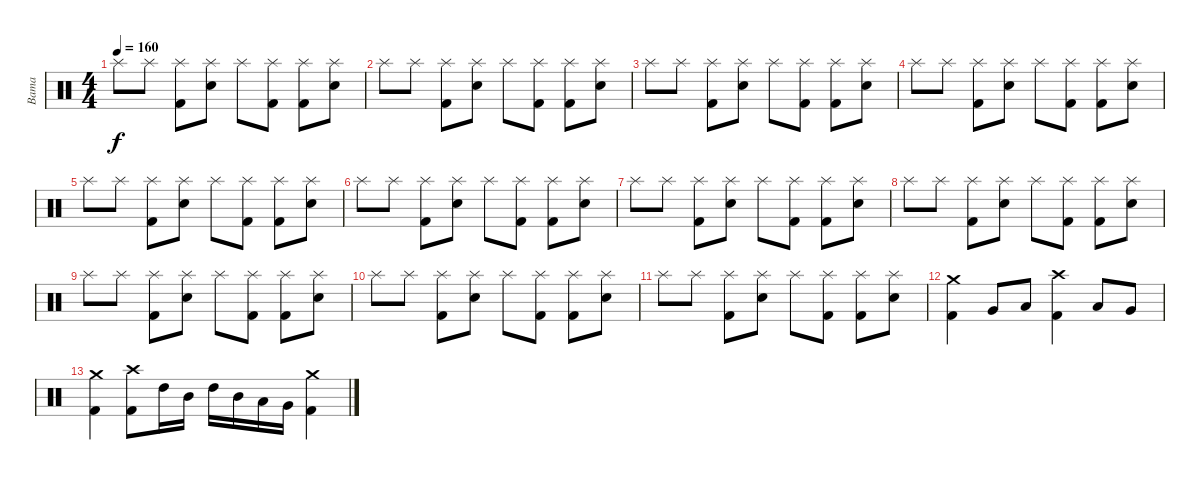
\track ("Bama" "Bama") {instrument percussion}
\staff {score}
\articulation defaults
\ts (4 4)
\tempo 160
\clef neutral
\ks c "Splash (hit)".8{dy f} "Splash (hit)".8
("Splash (hit)" "Kick (hit) 2").8 ("Splash (hit)" "Electric Snare (hit)").8 "Splash (hit)".8 ("Splash (hit)" "Kick (hit) 2").8 ("Splash (hit)" "Kick (hit) 2").8 ("Splash (hit)" "Electric Snare (hit)").8 |
"Splash (hit)".8 "Splash (hit)".8 ("Splash (hit)" "Kick (hit) 2").8 ("Splash (hit)" "Electric Snare (hit)").8 "Splash (hit)".8 ("Splash (hit)" "Kick (hit) 2").8 ("Splash (hit)" "Kick (hit) 2").8 ("Splash (hit)" "Electric Snare (hit)").8 |
"Splash (hit)".8 "Splash (hit)".8 ("Splash (hit)" "Kick (hit) 2").8 ("Splash (hit)" "Electric Snare (hit)").8 "Splash (hit)".8 ("Splash (hit)" "Kick (hit) 2").8 ("Splash (hit)" "Kick (hit) 2").8 ("Splash (hit)" "Electric Snare (hit)").8 |
"Splash (hit)".8 "Splash (hit)".8 ("Splash (hit)" "Kick (hit) 2").8 ("Splash (hit)" "Electric Snare (hit)").8 "Splash (hit)".8 ("Splash (hit)" "Kick (hit) 2").8 ("Splash (hit)" "Kick (hit) 2").8 ("Splash (hit)" "Electric Snare (hit)").8 |
"Splash (hit)".8 "Splash (hit)".8 ("Splash (hit)" "Kick (hit) 2").8 ("Splash (hit)" "Electric Snare (hit)").8 "Splash (hit)".8 ("Splash (hit)" "Kick (hit) 2").8 ("Splash (hit)" "Kick (hit) 2").8 ("Splash (hit)" "Electric Snare (hit)").8 |
"Splash (hit)".8 "Splash (hit)".8 ("Splash (hit)" "Kick (hit) 2").8 ("Splash (hit)" "Electric Snare (hit)").8 "Splash (hit)".8 ("Splash (hit)" "Kick (hit) 2").8 ("Splash (hit)" "Kick (hit) 2").8 ("Splash (hit)" "Electric Snare (hit)").8 |
"Splash (hit)".8 "Splash (hit)".8 ("Splash (hit)" "Kick (hit) 2").8 ("Splash (hit)" "Electric Snare (hit)").8 "Splash (hit)".8 ("Splash (hit)" "Kick (hit) 2").8 ("Splash (hit)" "Kick (hit) 2").8 ("Splash (hit)" "Electric Snare (hit)").8 |
"Splash (hit)".8 "Splash (hit)".8 ("Splash (hit)" "Kick (hit) 2").8 ("Splash (hit)" "Electric Snare (hit)").8 "Splash (hit)".8 ("Splash (hit)" "Kick (hit) 2").8 ("Splash (hit)" "Kick (hit) 2").8 ("Splash (hit)" "Electric Snare (hit)").8 |
"Splash (hit)".8 "Splash (hit)".8 ("Splash (hit)" "Kick (hit) 2").8 ("Splash (hit)" "Electric Snare (hit)").8 "Splash (hit)".8 ("Splash (hit)" "Kick (hit) 2").8 ("Splash (hit)" "Kick (hit) 2").8 ("Splash (hit)" "Electric Snare (hit)").8 |
"Splash (hit)".8 "Splash (hit)".8 ("Splash (hit)" "Kick (hit) 2").8 ("Splash (hit)" "Electric Snare (hit)").8 "Splash (hit)".8 ("Splash (hit)" "Kick (hit) 2").8 ("Splash (hit)" "Kick (hit) 2").8 ("Splash (hit)" "Electric Snare (hit)").8 |
"Splash (hit)".8 "Splash (hit)".8 ("Splash (hit)" "Kick (hit) 2").8 ("Splash (hit)" "Electric Snare (hit)").8 "Splash (hit)".8 ("Splash (hit)" "Kick (hit) 2").8 ("Splash (hit)" "Kick (hit) 2").8 ("Splash (hit)" "Electric Snare (hit)").8 |
("Crash medium (hit)" "Kick (hit) 2").4 "Very Low Tom (hit)".8 "Low Floor Tom (hit)".8 ("Crash high (hit)" "Kick (hit) 2").4 "Low Tom (hit)".8 "Very Low Tom (hit)".8 |
("Crash medium (hit)" "Kick (hit) 2").4 ("Crash high (hit)" "Kick (hit) 2").8 "High Tom (hit)".16 "Mid Tom (hit)".16 "High Tom (hit)".16 "Mid Tom (hit)".16 "Low Tom (hit)".16 "Very Low Tom (hit)".16 ("Crash medium (hit)" "Kick (hit) 2").4
